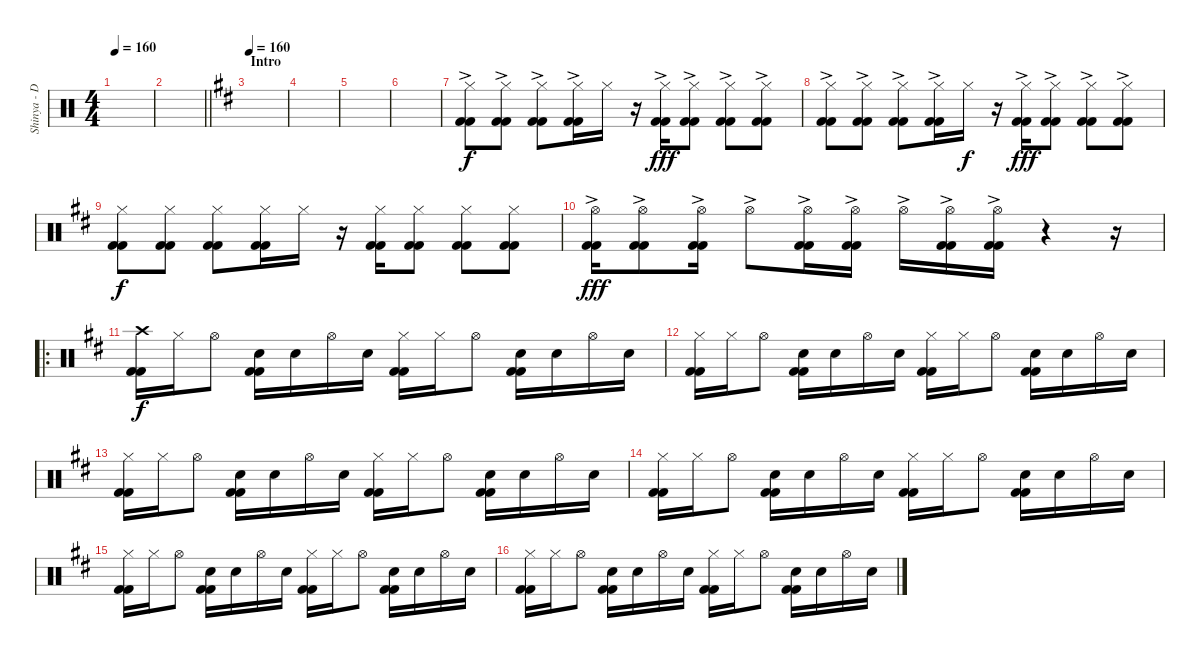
\track ("Shinya - Drums" "Shinya - D") {instrument percussion}
\staff {score}
\articulation defaults
\ts (4 4)
\tempo 160
\tempo 215
\tempo 160
\clef neutral
\ks c
|
\barLineRight lightlight
|
\section ("" "Intro")
\tempo 160
\ks d
|
|
|
|
("Hi-Hat (closed)" "Kick (hit) 2"{ac} "Kick (hit) 2").8{volume 14} ("Hi-Hat (closed)" "Kick (hit) 2"{ac} "Kick (hit) 2").8 ("Hi-Hat (closed)" "Kick (hit) 2"{ac} "Kick (hit) 2").8 ("Hi-Hat (closed)" "Kick (hit) 2"{ac} "Kick (hit) 2").16 "Hi-Hat (closed)".16{dy f} r.16 ("Hi-Hat (closed)" "Kick (hit) 2"{ac} "Kick (hit) 2").16{dy fff} ("Hi-Hat (closed)" "Kick (hit) 2"{ac} "Kick (hit) 2").8 ("Hi-Hat (closed)" "Kick (hit) 2"{ac} "Kick (hit) 2").8 ("Hi-Hat (closed)" "Kick (hit) 2"{ac} "Kick (hit) 2").8 |
("Hi-Hat (closed)" "Kick (hit) 2"{ac} "Kick (hit) 2").8 ("Hi-Hat (closed)" "Kick (hit) 2"{ac} "Kick (hit) 2").8 ("Hi-Hat (closed)" "Kick (hit) 2"{ac} "Kick (hit) 2").8 ("Hi-Hat (closed)" "Kick (hit) 2"{ac} "Kick (hit) 2").16 "Hi-Hat (closed)".16{dy f} r.16 ("Hi-Hat (closed)" "Kick (hit) 2"{ac} "Kick (hit) 2").16{dy fff} ("Hi-Hat (closed)" "Kick (hit) 2"{ac} "Kick (hit) 2").8 ("Hi-Hat (closed)" "Kick (hit) 2"{ac} "Kick (hit) 2").8 ("Hi-Hat (closed)" "Kick (hit) 2"{ac} "Kick (hit) 2").8 |
("Hi-Hat (closed)" "Kick (hit) 2" "Kick (hit) 2").8{dy f} ("Hi-Hat (closed)" "Kick (hit) 2" "Kick (hit) 2").8 ("Hi-Hat (closed)" "Kick (hit) 2" "Kick (hit) 2").8 ("Hi-Hat (closed)" "Kick (hit) 2" "Kick (hit) 2").16 "Hi-Hat (closed)".16 r.16 ("Hi-Hat (closed)" "Kick (hit) 2" "Kick (hit) 2").16 ("Hi-Hat (closed)" "Kick (hit) 2" "Kick (hit) 2").8 ("Hi-Hat (closed)" "Kick (hit) 2" "Kick (hit) 2").8 ("Hi-Hat (closed)" "Kick (hit) 2" "Kick (hit) 2").8 |
("Hi-Hat (open)"{ac} "Kick (hit) 2" "Kick (hit) 2").16{dy fff volume 12} ("Hi-Hat (open)"{ac} "Kick (hit) 2" "Kick (hit) 2").8 ("Hi-Hat (open)"{ac} "Kick (hit) 2" "Kick (hit) 2").16 "Hi-Hat (open)"{ac}.8 ("Hi-Hat (open)"{ac} "Kick (hit) 2" "Kick (hit) 2").16 ("Hi-Hat (open)"{ac} "Kick (hit) 2" "Kick (hit) 2").16 "Hi-Hat (open)"{ac}.16 ("Hi-Hat (open)"{ac} "Kick (hit) 2" "Kick (hit) 2").16 ("Hi-Hat (open)"{ac} "Kick (hit) 2" "Kick (hit) 2").16 r.4 r.16 |
\ro
("Crash high (hit)" "Kick (hit) 2" "Kick (hit) 2").16{dy f} "Hi-Hat (closed)".16 "Hi-Hat (open)".8 ("Snare (hit) 2" "Kick (hit) 2" "Kick (hit) 2").16 "Snare (hit) 2".16 "Hi-Hat (open)".16 "Snare (hit) 2".16 ("Hi-Hat (closed)" "Kick (hit) 2" "Kick (hit) 2").16 "Hi-Hat (closed)".16 "Hi-Hat (open)".8 ("Snare (hit) 2" "Kick (hit) 2" "Kick (hit) 2").16 "Snare (hit) 2".16 "Hi-Hat (open)".16 "Snare (hit) 2".16 |
("Hi-Hat (closed)" "Kick (hit) 2" "Kick (hit) 2").16 "Hi-Hat (closed)".16 "Hi-Hat (open)".8 ("Snare (hit) 2" "Kick (hit) 2" "Kick (hit) 2").16 "Snare (hit) 2".16 "Hi-Hat (open)".16 "Snare (hit) 2".16 ("Hi-Hat (closed)" "Kick (hit) 2" "Kick (hit) 2").16 "Hi-Hat (closed)".16 "Hi-Hat (open)".8 ("Snare (hit) 2" "Kick (hit) 2" "Kick (hit) 2").16 "Snare (hit) 2".16 "Hi-Hat (open)".16 "Snare (hit) 2".16 |
("Hi-Hat (closed)" "Kick (hit) 2" "Kick (hit) 2").16 "Hi-Hat (closed)".16 "Hi-Hat (open)".8 ("Snare (hit) 2" "Kick (hit) 2" "Kick (hit) 2").16 "Snare (hit) 2".16 "Hi-Hat (open)".16 "Snare (hit) 2".16 ("Hi-Hat (closed)" "Kick (hit) 2" "Kick (hit) 2").16 "Hi-Hat (closed)".16 "Hi-Hat (open)".8 ("Snare (hit) 2" "Kick (hit) 2" "Kick (hit) 2").16 "Snare (hit) 2".16 "Hi-Hat (open)".16 "Snare (hit) 2".16 |
("Hi-Hat (closed)" "Kick (hit) 2" "Kick (hit) 2").16 "Hi-Hat (closed)".16 "Hi-Hat (open)".8 ("Snare (hit) 2" "Kick (hit) 2" "Kick (hit) 2").16 "Snare (hit) 2".16 "Hi-Hat (open)".16 "Snare (hit) 2".16 ("Hi-Hat (closed)" "Kick (hit) 2" "Kick (hit) 2").16 "Hi-Hat (closed)".16 "Hi-Hat (open)".8 ("Snare (hit) 2" "Kick (hit) 2" "Kick (hit) 2").16 "Snare (hit) 2".16 "Hi-Hat (open)".16 "Snare (hit) 2".16 |
("Hi-Hat (closed)" "Kick (hit) 2" "Kick (hit) 2").16 "Hi-Hat (closed)".16 "Hi-Hat (open)".8 ("Snare (hit) 2" "Kick (hit) 2" "Kick (hit) 2").16 "Snare (hit) 2".16 "Hi-Hat (open)".16 "Snare (hit) 2".16 ("Hi-Hat (closed)" "Kick (hit) 2" "Kick (hit) 2").16 "Hi-Hat (closed)".16 "Hi-Hat (open)".8 ("Snare (hit) 2" "Kick (hit) 2" "Kick (hit) 2").16 "Snare (hit) 2".16 "Hi-Hat (open)".16 "Snare (hit) 2".16 |
("Hi-Hat (closed)" "Kick (hit) 2" "Kick (hit) 2").16 "Hi-Hat (closed)".16 "Hi-Hat (open)".8 ("Snare (hit) 2" "Kick (hit) 2" "Kick (hit) 2").16 "Snare (hit) 2".16 "Hi-Hat (open)".16 "Snare (hit) 2".16 ("Hi-Hat (closed)" "Kick (hit) 2" "Kick (hit) 2").16 "Hi-Hat (closed)".16 "Hi-Hat (open)".8 ("Snare (hit) 2" "Kick (hit) 2" "Kick (hit) 2").16 "Snare (hit) 2".16 "Hi-Hat (open)".16 "Snare (hit) 2".16
